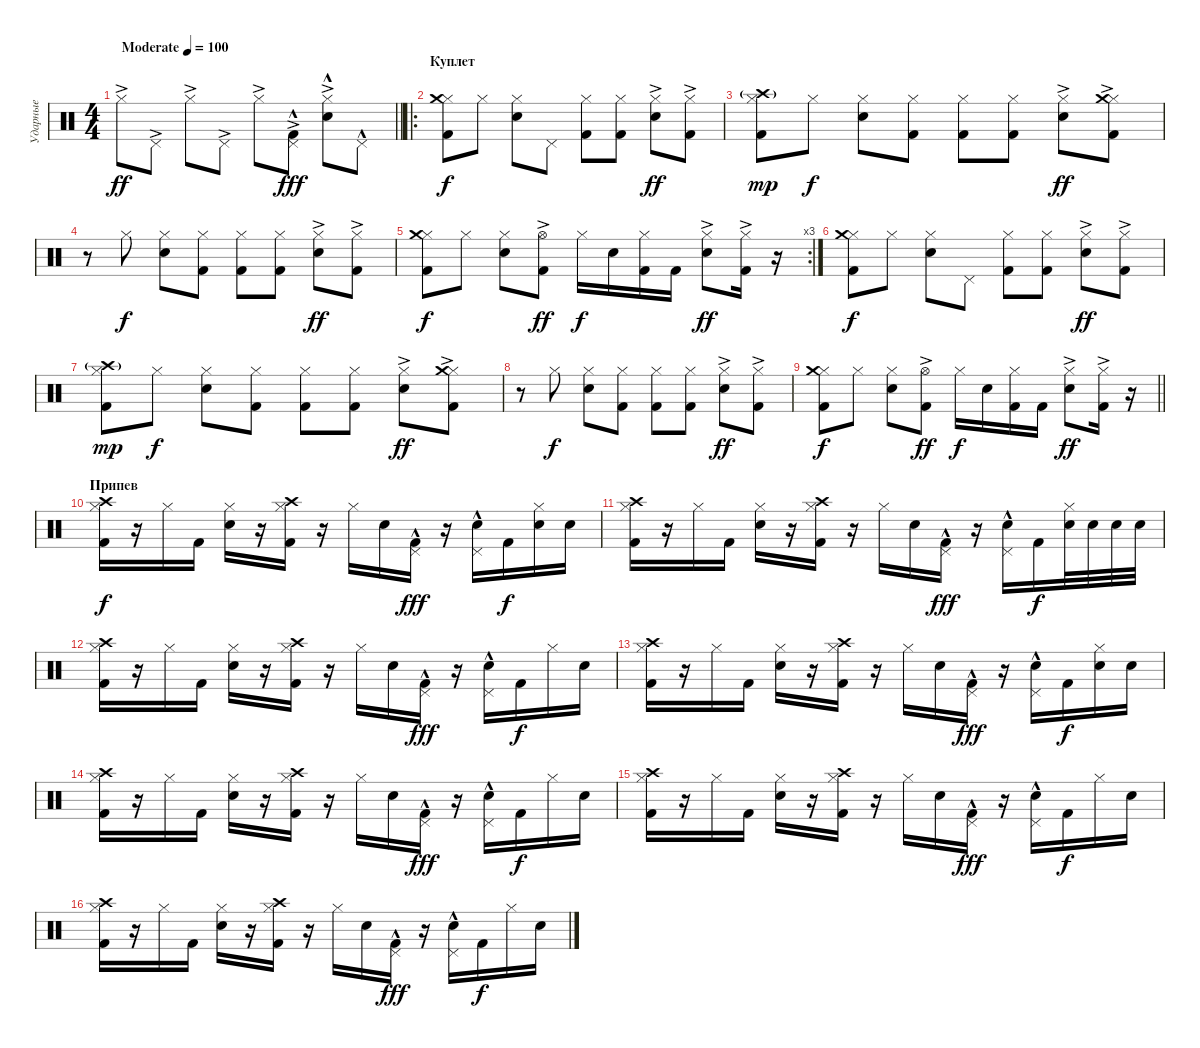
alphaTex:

\track ("Ударные" "Ударные") {instrument percussion}
\staff {score}
\articulation defaults
\ts (4 4)
\tempo (100 "Moderate")
\clef neutral
\barLineRight lightlight
\ks c "Hi-Hat (closed)"{ac}.8{dy ff} "Pedal Hi-Hat (hit)"{ac}.8 "Hi-Hat (closed)"{ac}.8 "Pedal Hi-Hat (hit)"{ac}.8 "Hi-Hat (closed)"{ac}.8
("Pedal Hi-Hat (hit)"{ac} "Kick (hit) 2"{hac}).8{dy fff} ("Hi-Hat (closed)"{ac} "Electric Snare (hit)"{hac}).8 "Pedal Hi-Hat (hit)"{hac}.8 |
\ro
\section ("" "Куплет")
("Hi-Hat (closed)" "Crash medium (hit)" "Kick (hit) 2").8{dy f} "Hi-Hat (closed)".8 ("Hi-Hat (closed)" "Electric Snare (hit)").8 "Pedal Hi-Hat (hit)".8 ("Hi-Hat (closed)" "Kick (hit) 2").8 ("Hi-Hat (closed)" "Kick (hit) 2").8 ("Hi-Hat (closed)"{ac} "Electric Snare (hit)").8{dy ff} ("Hi-Hat (closed)"{ac} "Kick (hit) 2").8 |
("Hi-Hat (closed)" "Crash high (hit)"{g} "Kick (hit) 2").8{dy mp} "Hi-Hat (closed)".8{dy f} ("Hi-Hat (closed)" "Electric Snare (hit)").8 ("Hi-Hat (closed)" "Kick (hit) 2").8 ("Hi-Hat (closed)" "Kick (hit) 2").8 ("Hi-Hat (closed)" "Kick (hit) 2").8 ("Hi-Hat (closed)"{ac} "Electric Snare (hit)").8{dy ff} ("Hi-Hat (closed)"{ac} "Crash medium (hit)" "Kick (hit) 2").8 |
r.8 "Hi-Hat (closed)".8{dy f} ("Hi-Hat (closed)" "Electric Snare (hit)").8 ("Hi-Hat (closed)" "Kick (hit) 2").8 ("Hi-Hat (closed)" "Kick (hit) 2").8 ("Hi-Hat (closed)" "Kick (hit) 2").8 ("Hi-Hat (closed)"{ac} "Electric Snare (hit)").8{dy ff} ("Hi-Hat (closed)"{ac} "Kick (hit) 2").8 |
\rc 3
("Hi-Hat (closed)" "Crash medium (hit)" "Kick (hit) 2").8{dy f} "Hi-Hat (closed)".8 ("Hi-Hat (closed)" "Electric Snare (hit)").8 ("Hi-Hat (open)"{ac} "Kick (hit) 2").8{dy ff} "Hi-Hat (closed)".16{dy f} "Electric Snare (hit)".16 ("Hi-Hat (closed)" "Kick (hit) 2").16 "Kick (hit) 2".16 ("Hi-Hat (closed)"{ac} "Electric Snare (hit)").8{dy ff} ("Hi-Hat (closed)"{ac} "Kick (hit) 2").16 r.16 |
("Hi-Hat (closed)" "Crash medium (hit)" "Kick (hit) 2").8{dy f} "Hi-Hat (closed)".8 ("Hi-Hat (closed)" "Electric Snare (hit)").8 "Pedal Hi-Hat (hit)".8 ("Hi-Hat (closed)" "Kick (hit) 2").8 ("Hi-Hat (closed)" "Kick (hit) 2").8 ("Hi-Hat (closed)"{ac} "Electric Snare (hit)").8{dy ff} ("Hi-Hat (closed)"{ac} "Kick (hit) 2").8 |
("Hi-Hat (closed)" "Crash high (hit)"{g} "Kick (hit) 2").8{dy mp} "Hi-Hat (closed)".8{dy f} ("Hi-Hat (closed)" "Electric Snare (hit)").8 ("Hi-Hat (closed)" "Kick (hit) 2").8 ("Hi-Hat (closed)" "Kick (hit) 2").8 ("Hi-Hat (closed)" "Kick (hit) 2").8 ("Hi-Hat (closed)"{ac} "Electric Snare (hit)").8{dy ff} ("Hi-Hat (closed)"{ac} "Crash medium (hit)" "Kick (hit) 2").8 |
r.8 "Hi-Hat (closed)".8{dy f} ("Hi-Hat (closed)" "Electric Snare (hit)").8 ("Hi-Hat (closed)" "Kick (hit) 2").8 ("Hi-Hat (closed)" "Kick (hit) 2").8 ("Hi-Hat (closed)" "Kick (hit) 2").8 ("Hi-Hat (closed)"{ac} "Electric Snare (hit)").8{dy ff} ("Hi-Hat (closed)"{ac} "Kick (hit) 2").8 |
\barLineRight lightlight
("Hi-Hat (closed)" "Crash medium (hit)" "Kick (hit) 2").8{dy f} "Hi-Hat (closed)".8 ("Hi-Hat (closed)" "Electric Snare (hit)").8 ("Hi-Hat (open)"{ac} "Kick (hit) 2").8{dy ff} "Hi-Hat (closed)".16{dy f} "Electric Snare (hit)".16 ("Hi-Hat (closed)" "Kick (hit) 2").16 "Kick (hit) 2".16 ("Hi-Hat (closed)"{ac} "Electric Snare (hit)").8{dy ff} ("Hi-Hat (closed)"{ac} "Kick (hit) 2").16 r.16 |
\section ("" "Припев")
("Hi-Hat (closed)" "Crash high (hit)" "Kick (hit) 2").16{dy f} r.16 "Hi-Hat (closed)".16 "Kick (hit) 2".16 ("Hi-Hat (closed)" "Electric Snare (hit)").16 r.16 ("Hi-Hat (closed)" "Crash high (hit)" "Kick (hit) 2").16 r.16 "Hi-Hat (closed)".16 "Electric Snare (hit)".16 ("Pedal Hi-Hat (hit)"{hac} "Kick (hit) 2").16{dy fff} r.16 ("Pedal Hi-Hat (hit)"{hac} "Electric Snare (hit)").16 "Kick (hit) 2".16{dy f} ("Hi-Hat (closed)" "Electric Snare (hit)").16 "Electric Snare (hit)".16 |
("Hi-Hat (closed)" "Crash high (hit)" "Kick (hit) 2").16 r.16 "Hi-Hat (closed)".16 "Kick (hit) 2".16 ("Hi-Hat (closed)" "Electric Snare (hit)").16 r.16 ("Hi-Hat (closed)" "Crash high (hit)" "Kick (hit) 2").16 r.16 "Hi-Hat (closed)".16 "Electric Snare (hit)".16 ("Pedal Hi-Hat (hit)"{hac} "Kick (hit) 2").16{dy fff} r.16 ("Pedal Hi-Hat (hit)"{hac} "Electric Snare (hit)").16 "Kick (hit) 2".16{dy f} ("Hi-Hat (closed)" "Electric Snare (hit)").32 "Electric Snare (hit)".32 "Electric Snare (hit)".32 "Electric Snare (hit)".32 |
("Hi-Hat (closed)" "Crash high (hit)" "Kick (hit) 2").16 r.16 "Hi-Hat (closed)".16 "Kick (hit) 2".16 ("Hi-Hat (closed)" "Electric Snare (hit)").16 r.16 ("Hi-Hat (closed)" "Crash high (hit)" "Kick (hit) 2").16 r.16 "Hi-Hat (closed)".16 "Electric Snare (hit)".16 ("Pedal Hi-Hat (hit)"{hac} "Kick (hit) 2").16{dy fff} r.16 ("Pedal Hi-Hat (hit)"{hac} "Electric Snare (hit)").16 "Kick (hit) 2".16{dy f} "Hi-Hat (closed)".16 "Electric Snare (hit)".16 |
("Hi-Hat (closed)" "Crash high (hit)" "Kick (hit) 2").16 r.16 "Hi-Hat (closed)".16 "Kick (hit) 2".16 ("Hi-Hat (closed)" "Electric Snare (hit)").16 r.16 ("Hi-Hat (closed)" "Crash high (hit)" "Kick (hit) 2").16 r.16 "Hi-Hat (closed)".16 "Electric Snare (hit)".16 ("Pedal Hi-Hat (hit)"{hac} "Kick (hit) 2").16{dy fff} r.16 ("Pedal Hi-Hat (hit)"{hac} "Electric Snare (hit)").16 "Kick (hit) 2".16{dy f} ("Hi-Hat (closed)" "Electric Snare (hit)").16 "Electric Snare (hit)".16 |
("Hi-Hat (closed)" "Crash high (hit)" "Kick (hit) 2").16 r.16 "Hi-Hat (closed)".16 "Kick (hit) 2".16 ("Hi-Hat (closed)" "Electric Snare (hit)").16 r.16 ("Hi-Hat (closed)" "Crash high (hit)" "Kick (hit) 2").16 r.16 "Hi-Hat (closed)".16 "Electric Snare (hit)".16 ("Pedal Hi-Hat (hit)"{hac} "Kick (hit) 2").16{dy fff} r.16 ("Pedal Hi-Hat (hit)"{hac} "Electric Snare (hit)").16 "Kick (hit) 2".16{dy f} "Hi-Hat (closed)".16 "Electric Snare (hit)".16 |
("Hi-Hat (closed)" "Crash high (hit)" "Kick (hit) 2").16 r.16 "Hi-Hat (closed)".16 "Kick (hit) 2".16 ("Hi-Hat (closed)" "Electric Snare (hit)").16 r.16 ("Hi-Hat (closed)" "Crash high (hit)" "Kick (hit) 2").16 r.16 "Hi-Hat (closed)".16 "Electric Snare (hit)".16 ("Pedal Hi-Hat (hit)"{hac} "Kick (hit) 2").16{dy fff} r.16 ("Pedal Hi-Hat (hit)"{hac} "Electric Snare (hit)").16 "Kick (hit) 2".16{dy f} "Hi-Hat (closed)".16 "Electric Snare (hit)".16 |
("Hi-Hat (closed)" "Crash high (hit)" "Kick (hit) 2").16 r.16 "Hi-Hat (closed)".16 "Kick (hit) 2".16 ("Hi-Hat (closed)" "Electric Snare (hit)").16 r.16 ("Hi-Hat (closed)" "Crash high (hit)" "Kick (hit) 2").16 r.16 "Hi-Hat (closed)".16 "Electric Snare (hit)".16 ("Pedal Hi-Hat (hit)"{hac} "Kick (hit) 2").16{dy fff} r.16 ("Pedal Hi-Hat (hit)"{hac} "Electric Snare (hit)").16 "Kick (hit) 2".16{dy f} "Hi-Hat (closed)".16 "Electric Snare (hit)".16
